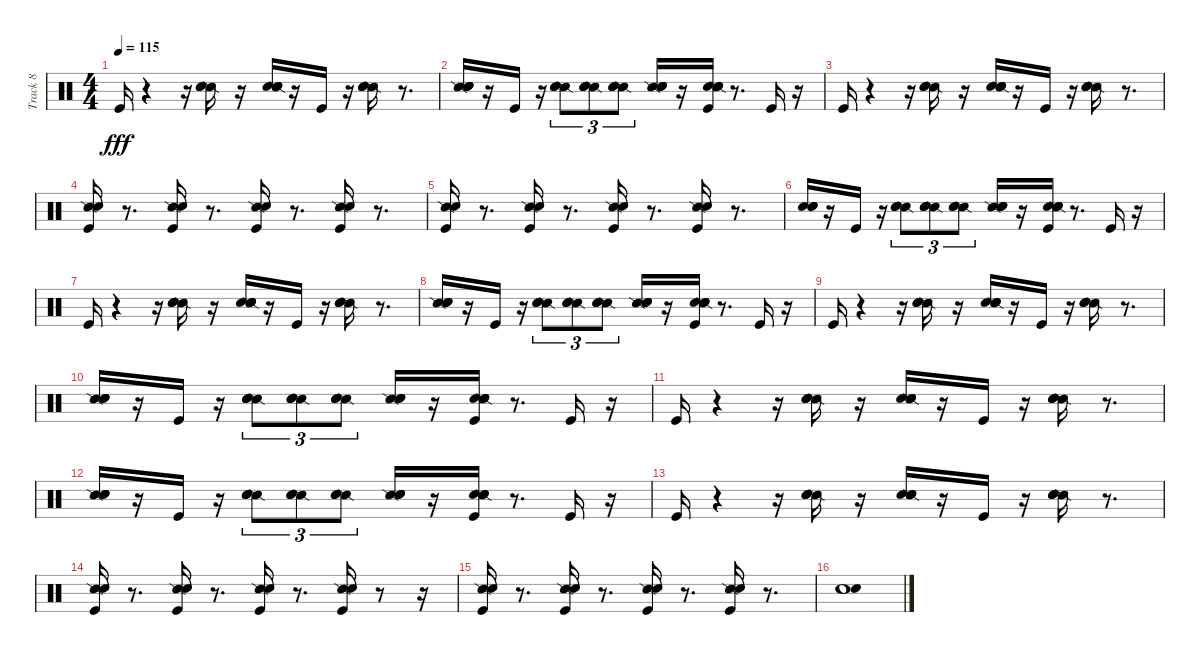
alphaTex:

\track ("Track 8" "Track 8") {instrument percussion}
\staff {score}
\articulation defaults
\ts (4 4)
\tempo 115
\clef neutral
\ks c "Kick (hit)".16{dy fff}
r.4 r.16 ("Snare (side stick) 2" "Metronome (bell)" "Snare (hit) 2" "Electric Snare (hit)").16 r.16 ("Electric Snare (hit)" "Snare (hit) 2" "Metronome (bell)" "Snare (side stick) 2").16 r.16 "Kick (hit)".16 r.16 ("Snare (side stick) 2" "Metronome (bell)" "Snare (hit) 2" "Electric Snare (hit)").16 r.8{d} |
("Snare (side stick) 2" "Metronome (bell)" "Snare (hit) 2" "Electric Snare (hit)").16 r.16 "Kick (hit)".16 r.16 ("Snare (side stick) 2" "Metronome (bell)" "Snare (hit) 2" "Electric Snare (hit)").8{tu (3 2)} ("Snare (side stick) 2" "Metronome (bell)" "Snare (hit) 2" "Electric Snare (hit)").8{tu (3 2)} ("Snare (side stick) 2" "Metronome (bell)" "Snare (hit) 2" "Electric Snare (hit)").8{tu (3 2)} ("Snare (side stick) 2" "Metronome (bell)" "Snare (hit) 2" "Electric Snare (hit)").16 r.16 ("Electric Snare (hit)" "Snare (hit) 2" "Metronome (bell)" "Snare (side stick) 2" "Kick (hit)").16 r.8{d} "Kick (hit)".16 r.16 |
"Kick (hit)".16 r.4 r.16 ("Snare (side stick) 2" "Metronome (bell)" "Snare (hit) 2" "Electric Snare (hit)").16 r.16 ("Electric Snare (hit)" "Snare (hit) 2" "Metronome (bell)" "Snare (side stick) 2").16 r.16 "Kick (hit)".16 r.16 ("Snare (side stick) 2" "Metronome (bell)" "Snare (hit) 2" "Electric Snare (hit)").16 r.8{d} |
("Snare (side stick) 2" "Metronome (bell)" "Kick (hit)").16 r.8{d} ("Snare (side stick) 2" "Metronome (bell)" "Kick (hit)").16 r.8{d} ("Snare (side stick) 2" "Metronome (bell)" "Kick (hit)").16 r.8{d} ("Snare (side stick) 2" "Metronome (bell)" "Kick (hit)").16 r.8{d} |
("Snare (side stick) 2" "Metronome (bell)" "Kick (hit)").16 r.8{d} ("Snare (side stick) 2" "Metronome (bell)" "Kick (hit)").16 r.8{d} ("Snare (side stick) 2" "Metronome (bell)" "Kick (hit)").16 r.8{d} ("Snare (side stick) 2" "Metronome (bell)" "Kick (hit)").16 r.8{d} |
("Metronome (bell)" "Snare (hit) 2" "Electric Snare (hit)").16 r.16 "Kick (hit)".16 r.16 ("Snare (side stick) 2" "Metronome (bell)" "Snare (hit) 2" "Electric Snare (hit)").8{tu (3 2)} ("Snare (side stick) 2" "Metronome (bell)" "Snare (hit) 2" "Electric Snare (hit)").8{tu (3 2)} ("Snare (side stick) 2" "Metronome (bell)" "Snare (hit) 2" "Electric Snare (hit)").8{tu (3 2)} ("Snare (side stick) 2" "Metronome (bell)" "Snare (hit) 2" "Electric Snare (hit)").16 r.16 ("Electric Snare (hit)" "Snare (hit) 2" "Metronome (bell)" "Snare (side stick) 2" "Kick (hit)").16 r.8{d} "Kick (hit)".16 r.16 |
"Kick (hit)".16 r.4 r.16 ("Snare (side stick) 2" "Metronome (bell)" "Snare (hit) 2" "Electric Snare (hit)").16 r.16 ("Electric Snare (hit)" "Snare (hit) 2" "Metronome (bell)" "Snare (side stick) 2").16 r.16 "Kick (hit)".16 r.16 ("Snare (side stick) 2" "Metronome (bell)" "Snare (hit) 2" "Electric Snare (hit)").16 r.8{d} |
("Snare (side stick) 2" "Metronome (bell)" "Snare (hit) 2" "Electric Snare (hit)").16 r.16 "Kick (hit)".16 r.16 ("Snare (side stick) 2" "Metronome (bell)" "Snare (hit) 2" "Electric Snare (hit)").8{tu (3 2)} ("Snare (side stick) 2" "Metronome (bell)" "Snare (hit) 2" "Electric Snare (hit)").8{tu (3 2)} ("Snare (side stick) 2" "Metronome (bell)" "Snare (hit) 2" "Electric Snare (hit)").8{tu (3 2)} ("Snare (side stick) 2" "Metronome (bell)" "Snare (hit) 2" "Electric Snare (hit)").16 r.16 ("Electric Snare (hit)" "Snare (hit) 2" "Metronome (bell)" "Snare (side stick) 2" "Kick (hit)").16 r.8{d} "Kick (hit)".16 r.16 |
"Kick (hit)".16 r.4 r.16 ("Snare (side stick) 2" "Metronome (bell)" "Snare (hit) 2" "Electric Snare (hit)").16 r.16 ("Electric Snare (hit)" "Snare (hit) 2" "Metronome (bell)" "Snare (side stick) 2").16 r.16 "Kick (hit)".16 r.16 ("Snare (side stick) 2" "Metronome (bell)" "Snare (hit) 2" "Electric Snare (hit)").16 r.8{d} |
("Snare (side stick) 2" "Metronome (bell)" "Snare (hit) 2" "Electric Snare (hit)").16 r.16 "Kick (hit)".16 r.16 ("Snare (side stick) 2" "Metronome (bell)" "Snare (hit) 2" "Electric Snare (hit)").8{tu (3 2)} ("Snare (side stick) 2" "Metronome (bell)" "Snare (hit) 2" "Electric Snare (hit)").8{tu (3 2)} ("Snare (side stick) 2" "Metronome (bell)" "Snare (hit) 2" "Electric Snare (hit)").8{tu (3 2)} ("Snare (side stick) 2" "Metronome (bell)" "Snare (hit) 2" "Electric Snare (hit)").16 r.16 ("Electric Snare (hit)" "Snare (hit) 2" "Metronome (bell)" "Snare (side stick) 2" "Kick (hit)").16 r.8{d} "Kick (hit)".16 r.16 |
"Kick (hit)".16 r.4 r.16 ("Snare (side stick) 2" "Metronome (bell)" "Snare (hit) 2" "Electric Snare (hit)").16 r.16 ("Electric Snare (hit)" "Snare (hit) 2" "Metronome (bell)" "Snare (side stick) 2").16 r.16 "Kick (hit)".16 r.16 ("Snare (side stick) 2" "Metronome (bell)" "Snare (hit) 2" "Electric Snare (hit)").16 r.8{d} |
("Snare (side stick) 2" "Metronome (bell)" "Snare (hit) 2" "Electric Snare (hit)").16 r.16 "Kick (hit)".16 r.16 ("Snare (side stick) 2" "Metronome (bell)" "Snare (hit) 2" "Electric Snare (hit)").8{tu (3 2)} ("Snare (side stick) 2" "Metronome (bell)" "Snare (hit) 2" "Electric Snare (hit)").8{tu (3 2)} ("Snare (side stick) 2" "Metronome (bell)" "Snare (hit) 2" "Electric Snare (hit)").8{tu (3 2)} ("Snare (side stick) 2" "Metronome (bell)" "Snare (hit) 2" "Electric Snare (hit)").16 r.16 ("Electric Snare (hit)" "Snare (hit) 2" "Metronome (bell)" "Snare (side stick) 2" "Kick (hit)").16 r.8{d} "Kick (hit)".16 r.16 |
"Kick (hit)".16 r.4 r.16 ("Snare (side stick) 2" "Metronome (bell)" "Snare (hit) 2" "Electric Snare (hit)").16 r.16 ("Electric Snare (hit)" "Snare (hit) 2" "Metronome (bell)" "Snare (side stick) 2").16 r.16 "Kick (hit)".16 r.16 ("Snare (side stick) 2" "Metronome (bell)" "Snare (hit) 2" "Electric Snare (hit)").16 r.8{d} |
("Snare (side stick) 2" "Metronome (bell)" "Kick (hit)").16 r.8{d} ("Snare (side stick) 2" "Metronome (bell)" "Kick (hit)").16 r.8{d} ("Snare (side stick) 2" "Metronome (bell)" "Kick (hit)").16 r.8{d} ("Snare (side stick) 2" "Metronome (bell)" "Kick (hit)").16 r.8 r.16 |
("Snare (side stick) 2" "Metronome (bell)" "Kick (hit)").16 r.8{d} ("Snare (side stick) 2" "Metronome (bell)" "Kick (hit)").16 r.8{d} ("Snare (side stick) 2" "Metronome (bell)" "Kick (hit)").16 r.8{d} ("Snare (side stick) 2" "Metronome (bell)" "Kick (hit)").16 r.8{d} |
("Metronome (bell)" "Snare (hit) 2" "Electric Snare (hit)").1
